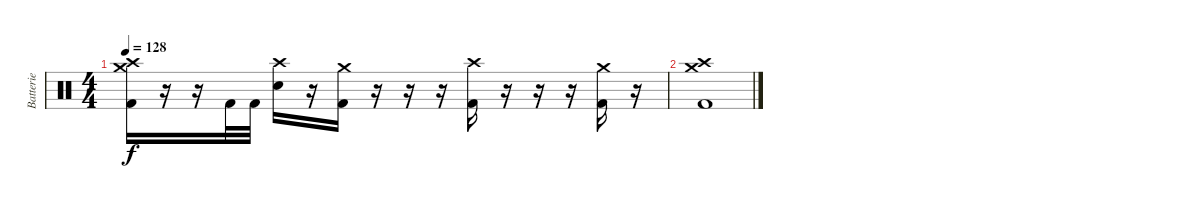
\track ("Batterie" "Batterie") {instrument percussion}
\staff {score}
\articulation defaults
\ts (4 4)
\tempo 128
\clef neutral
\ks c
("Kick (hit) 2" "Crash medium (hit)" "Crash high (hit)").16{dy f} r.16 r.16 "Kick (hit) 2".32 "Kick (hit) 2".32 ("Electric Snare (hit)" "Crash high (hit)").16 r.16 ("Kick (hit) 2" "Crash medium (hit)").16 r.16 r.16 r.16 ("Kick (hit) 2" "Crash high (hit)").16 r.16 r.16 r.16 ("Kick (hit) 2" "Crash medium (hit)").16 r.16 |
("Kick (hit) 2" "Crash medium (hit)" "Crash high (hit)").1
